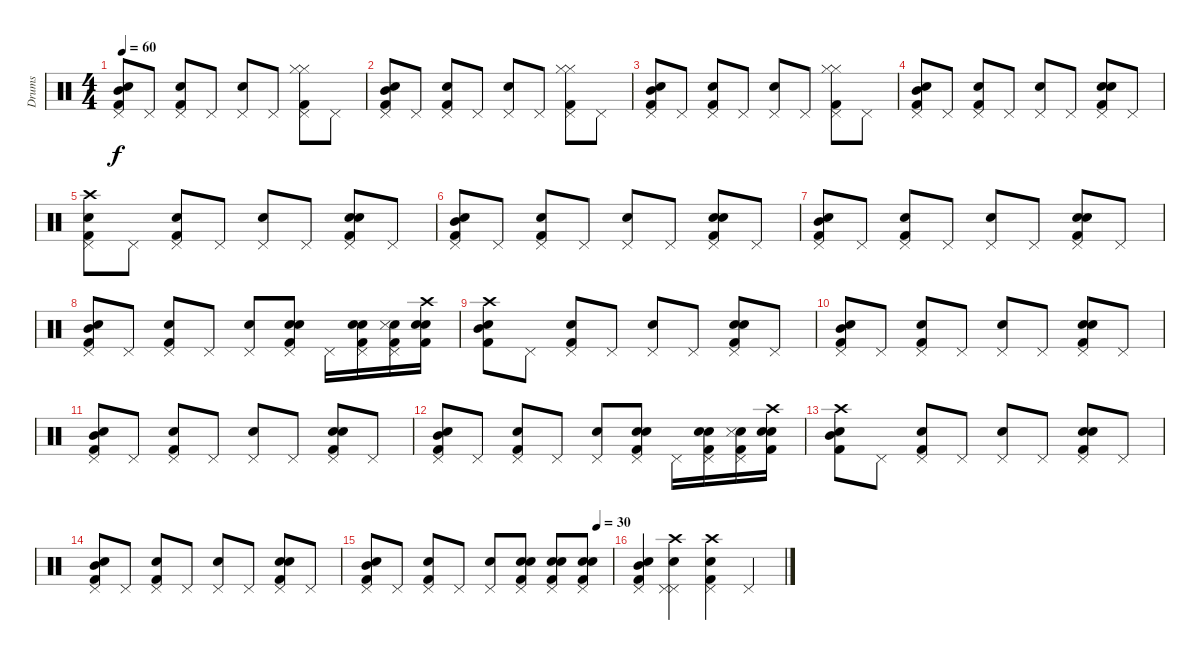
\track ("Drums" "Drums") {instrument percussion}
\staff {score}
\articulation defaults
\ts (4 4)
\tempo 60
\clef neutral
\ks c
("Kick (hit) 2" "Snare (hit) 2" "Pedal Hi-Hat (hit)" "Mid Tom (hit)").8{dy f} "Pedal Hi-Hat (hit)".8 ("Pedal Hi-Hat (hit)" "Electric Snare (hit)" "Kick (hit) 2").8 "Pedal Hi-Hat (hit)".8 ("Pedal Hi-Hat (hit)" "Snare (hit) 2").8 "Pedal Hi-Hat (hit)".8 ("Pedal Hi-Hat (hit)" "Kick (hit) 2" "Hi-Hat (closed)" "Hi-Hat (closed)").8 "Pedal Hi-Hat (hit)".8 |
("Kick (hit) 2" "Snare (hit) 2" "Pedal Hi-Hat (hit)" "Mid Tom (hit)").8 "Pedal Hi-Hat (hit)".8 ("Pedal Hi-Hat (hit)" "Electric Snare (hit)" "Kick (hit) 2").8 "Pedal Hi-Hat (hit)".8 ("Pedal Hi-Hat (hit)" "Snare (hit) 2").8 "Pedal Hi-Hat (hit)".8 ("Pedal Hi-Hat (hit)" "Kick (hit) 2" "Hi-Hat (closed)" "Hi-Hat (closed)").8 "Pedal Hi-Hat (hit)".8 |
("Kick (hit) 2" "Snare (hit) 2" "Pedal Hi-Hat (hit)" "Mid Tom (hit)").8 "Pedal Hi-Hat (hit)".8 ("Pedal Hi-Hat (hit)" "Electric Snare (hit)" "Kick (hit) 2").8 "Pedal Hi-Hat (hit)".8 ("Pedal Hi-Hat (hit)" "Snare (hit) 2").8 "Pedal Hi-Hat (hit)".8 ("Pedal Hi-Hat (hit)" "Kick (hit) 2" "Hi-Hat (closed)" "Hi-Hat (closed)").8 "Pedal Hi-Hat (hit)".8 |
("Kick (hit) 2" "Snare (hit) 2" "Pedal Hi-Hat (hit)" "Mid Tom (hit)").8 "Pedal Hi-Hat (hit)".8 ("Pedal Hi-Hat (hit)" "Electric Snare (hit)" "Kick (hit) 2").8 "Pedal Hi-Hat (hit)".8 ("Pedal Hi-Hat (hit)" "Snare (hit) 2").8 "Pedal Hi-Hat (hit)".8 ("Pedal Hi-Hat (hit)" "Electric Snare (hit)" "Kick (hit) 2" "Snare (hit) 2").8 "Pedal Hi-Hat (hit)".8 |
("Pedal Hi-Hat (hit)" "Snare (hit) 2" "Crash high (hit)" "Kick (hit) 2").8 "Pedal Hi-Hat (hit)".8 ("Pedal Hi-Hat (hit)" "Electric Snare (hit)" "Kick (hit) 2").8 "Pedal Hi-Hat (hit)".8 ("Pedal Hi-Hat (hit)" "Snare (hit) 2").8 "Pedal Hi-Hat (hit)".8 ("Pedal Hi-Hat (hit)" "Electric Snare (hit)" "Kick (hit) 2" "Snare (hit) 2").8 "Pedal Hi-Hat (hit)".8 |
("Kick (hit) 2" "Snare (hit) 2" "Pedal Hi-Hat (hit)" "Mid Tom (hit)").8 "Pedal Hi-Hat (hit)".8 ("Pedal Hi-Hat (hit)" "Electric Snare (hit)" "Kick (hit) 2").8 "Pedal Hi-Hat (hit)".8 ("Pedal Hi-Hat (hit)" "Snare (hit) 2").8 "Pedal Hi-Hat (hit)".8 ("Pedal Hi-Hat (hit)" "Electric Snare (hit)" "Kick (hit) 2" "Snare (hit) 2").8 "Pedal Hi-Hat (hit)".8 |
("Kick (hit) 2" "Snare (hit) 2" "Pedal Hi-Hat (hit)" "Mid Tom (hit)").8 "Pedal Hi-Hat (hit)".8 ("Pedal Hi-Hat (hit)" "Electric Snare (hit)" "Kick (hit) 2").8 "Pedal Hi-Hat (hit)".8 ("Pedal Hi-Hat (hit)" "Snare (hit) 2").8 "Pedal Hi-Hat (hit)".8 ("Pedal Hi-Hat (hit)" "Electric Snare (hit)" "Kick (hit) 2" "Snare (hit) 2").8 "Pedal Hi-Hat (hit)".8 |
("Kick (hit) 2" "Snare (hit) 2" "Pedal Hi-Hat (hit)" "Mid Tom (hit)").8 "Pedal Hi-Hat (hit)".8 ("Pedal Hi-Hat (hit)" "Electric Snare (hit)" "Kick (hit) 2").8 "Pedal Hi-Hat (hit)".8 ("Pedal Hi-Hat (hit)" "Snare (hit) 2").8 ("Pedal Hi-Hat (hit)" "Electric Snare (hit)" "Kick (hit) 2" "Snare (hit) 2").8 "Pedal Hi-Hat (hit)".16 ("Pedal Hi-Hat (hit)" "Electric Snare (hit)" "Kick (hit) 2" "Snare (hit) 2").16 ("Pedal Hi-Hat (hit)" "Electric Snare (hit)" "Kick (hit) 2" "Snare (side stick) 3").16 ("Crash high (hit)" "Electric Snare (hit)" "Kick (hit) 2" "Snare (hit) 2").16 |
("Kick (hit) 2" "Snare (hit) 2" "Crash high (hit)" "Mid Tom (hit)").8 "Pedal Hi-Hat (hit)".8 ("Pedal Hi-Hat (hit)" "Electric Snare (hit)" "Kick (hit) 2").8 "Pedal Hi-Hat (hit)".8 ("Pedal Hi-Hat (hit)" "Snare (hit) 2").8 "Pedal Hi-Hat (hit)".8 ("Pedal Hi-Hat (hit)" "Electric Snare (hit)" "Kick (hit) 2" "Snare (hit) 2").8 "Pedal Hi-Hat (hit)".8 |
("Kick (hit) 2" "Snare (hit) 2" "Pedal Hi-Hat (hit)" "Mid Tom (hit)").8 "Pedal Hi-Hat (hit)".8 ("Pedal Hi-Hat (hit)" "Electric Snare (hit)" "Kick (hit) 2").8 "Pedal Hi-Hat (hit)".8 ("Pedal Hi-Hat (hit)" "Snare (hit) 2").8 "Pedal Hi-Hat (hit)".8 ("Pedal Hi-Hat (hit)" "Electric Snare (hit)" "Kick (hit) 2" "Snare (hit) 2").8 "Pedal Hi-Hat (hit)".8 |
("Kick (hit) 2" "Snare (hit) 2" "Pedal Hi-Hat (hit)" "Mid Tom (hit)").8 "Pedal Hi-Hat (hit)".8 ("Pedal Hi-Hat (hit)" "Electric Snare (hit)" "Kick (hit) 2").8 "Pedal Hi-Hat (hit)".8 ("Pedal Hi-Hat (hit)" "Snare (hit) 2").8 "Pedal Hi-Hat (hit)".8 ("Pedal Hi-Hat (hit)" "Electric Snare (hit)" "Kick (hit) 2" "Snare (hit) 2").8 "Pedal Hi-Hat (hit)".8 |
("Kick (hit) 2" "Snare (hit) 2" "Pedal Hi-Hat (hit)" "Mid Tom (hit)").8 "Pedal Hi-Hat (hit)".8 ("Pedal Hi-Hat (hit)" "Electric Snare (hit)" "Kick (hit) 2").8 "Pedal Hi-Hat (hit)".8 ("Pedal Hi-Hat (hit)" "Snare (hit) 2").8 ("Pedal Hi-Hat (hit)" "Electric Snare (hit)" "Kick (hit) 2" "Snare (hit) 2").8 "Pedal Hi-Hat (hit)".16 ("Pedal Hi-Hat (hit)" "Electric Snare (hit)" "Kick (hit) 2" "Snare (hit) 2").16 ("Pedal Hi-Hat (hit)" "Electric Snare (hit)" "Kick (hit) 2" "Snare (side stick) 3").16 ("Crash high (hit)" "Electric Snare (hit)" "Kick (hit) 2" "Snare (hit) 2").16 |
("Kick (hit) 2" "Snare (hit) 2" "Crash high (hit)" "Mid Tom (hit)").8 "Pedal Hi-Hat (hit)".8 ("Pedal Hi-Hat (hit)" "Electric Snare (hit)" "Kick (hit) 2").8 "Pedal Hi-Hat (hit)".8 ("Pedal Hi-Hat (hit)" "Snare (hit) 2").8 "Pedal Hi-Hat (hit)".8 ("Pedal Hi-Hat (hit)" "Electric Snare (hit)" "Kick (hit) 2" "Snare (hit) 2").8 "Pedal Hi-Hat (hit)".8 |
("Kick (hit) 2" "Snare (hit) 2" "Pedal Hi-Hat (hit)" "Mid Tom (hit)").8 "Pedal Hi-Hat (hit)".8 ("Pedal Hi-Hat (hit)" "Electric Snare (hit)" "Kick (hit) 2").8 "Pedal Hi-Hat (hit)".8 ("Pedal Hi-Hat (hit)" "Snare (hit) 2").8 "Pedal Hi-Hat (hit)".8 ("Pedal Hi-Hat (hit)" "Electric Snare (hit)" "Kick (hit) 2" "Snare (hit) 2").8 "Pedal Hi-Hat (hit)".8 |
\tempo (30 0.9375)
("Kick (hit) 2" "Snare (hit) 2" "Pedal Hi-Hat (hit)" "Mid Tom (hit)").8 "Pedal Hi-Hat (hit)".8 ("Pedal Hi-Hat (hit)" "Electric Snare (hit)" "Kick (hit) 2").8 "Pedal Hi-Hat (hit)".8 ("Pedal Hi-Hat (hit)" "Snare (hit) 2").8 ("Pedal Hi-Hat (hit)" "Electric Snare (hit)" "Kick (hit) 2" "Snare (hit) 2").8 ("Pedal Hi-Hat (hit)" "Electric Snare (hit)" "Kick (hit) 2" "Snare (hit) 2").8 ("Pedal Hi-Hat (hit)" "Electric Snare (hit)" "Kick (hit) 2" "Snare (hit) 2").8 |
("Kick (hit) 2" "Snare (hit) 2" "Pedal Hi-Hat (hit)" "Mid Tom (hit)").4 ("Pedal Hi-Hat (hit)" "Snare (hit) 2" "Pedal Hi-Hat (hit)" "Crash high (hit)").4 ("Pedal Hi-Hat (hit)" "Kick (hit) 2" "Snare (hit) 2" "Crash high (hit)").4 "Pedal Hi-Hat (hit)".4
